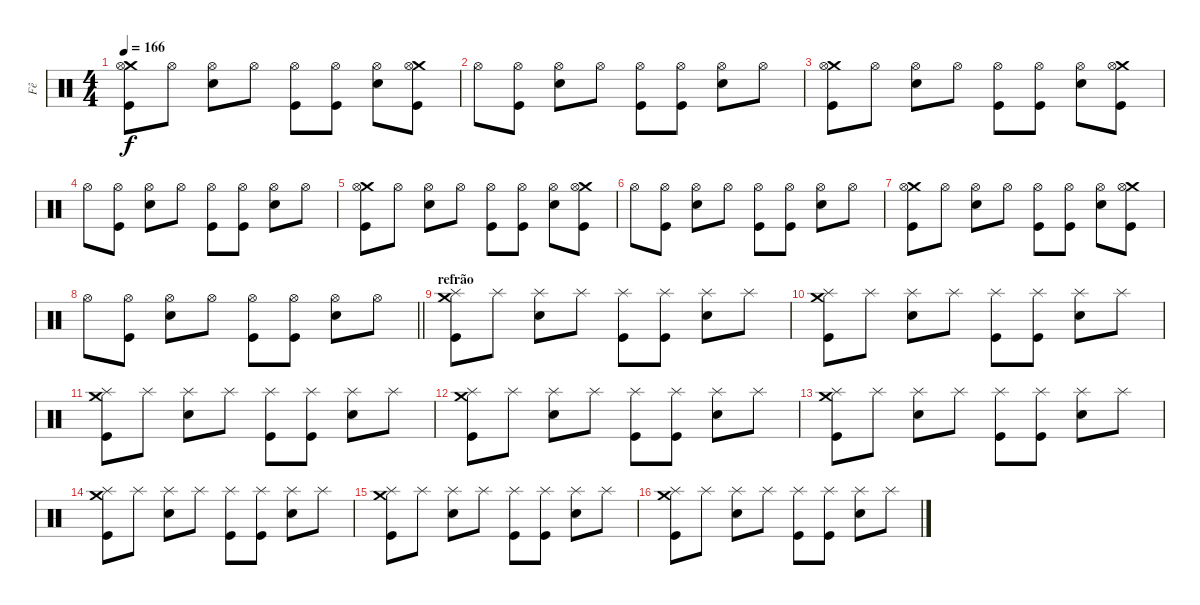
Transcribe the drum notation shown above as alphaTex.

\track ("Fê" "Fê") {instrument percussion}
\staff {score}
\articulation defaults
\ts (4 4)
\tempo 166
\clef neutral
\ks c
("Crash medium (hit)" "Hi-Hat (open)" "Kick (hit)").8{dy f} "Hi-Hat (open)".8 ("Hi-Hat (open)" "Electric Snare (hit)").8 "Hi-Hat (open)".8 ("Hi-Hat (open)" "Kick (hit)").8 ("Hi-Hat (open)" "Kick (hit)").8 ("Hi-Hat (open)" "Electric Snare (hit)").8 ("Crash medium (hit)" "Hi-Hat (open)" "Kick (hit)").8 |
"Hi-Hat (open)".8 ("Hi-Hat (open)" "Kick (hit)").8 ("Hi-Hat (open)" "Electric Snare (hit)").8 "Hi-Hat (open)".8 ("Hi-Hat (open)" "Kick (hit)").8 ("Hi-Hat (open)" "Kick (hit)").8 ("Hi-Hat (open)" "Electric Snare (hit)").8 "Hi-Hat (open)".8 |
("Crash medium (hit)" "Hi-Hat (open)" "Kick (hit)").8 "Hi-Hat (open)".8 ("Hi-Hat (open)" "Electric Snare (hit)").8 "Hi-Hat (open)".8 ("Hi-Hat (open)" "Kick (hit)").8 ("Hi-Hat (open)" "Kick (hit)").8 ("Hi-Hat (open)" "Electric Snare (hit)").8 ("Crash medium (hit)" "Hi-Hat (open)" "Kick (hit)").8 |
"Hi-Hat (open)".8 ("Hi-Hat (open)" "Kick (hit)").8 ("Hi-Hat (open)" "Electric Snare (hit)").8 "Hi-Hat (open)".8 ("Hi-Hat (open)" "Kick (hit)").8 ("Hi-Hat (open)" "Kick (hit)").8 ("Hi-Hat (open)" "Electric Snare (hit)").8 "Hi-Hat (open)".8 |
("Crash medium (hit)" "Hi-Hat (open)" "Kick (hit)").8 "Hi-Hat (open)".8 ("Hi-Hat (open)" "Electric Snare (hit)").8 "Hi-Hat (open)".8 ("Hi-Hat (open)" "Kick (hit)").8 ("Hi-Hat (open)" "Kick (hit)").8 ("Hi-Hat (open)" "Electric Snare (hit)").8 ("Crash medium (hit)" "Hi-Hat (open)" "Kick (hit)").8 |
"Hi-Hat (open)".8 ("Hi-Hat (open)" "Kick (hit)").8 ("Hi-Hat (open)" "Electric Snare (hit)").8 "Hi-Hat (open)".8 ("Hi-Hat (open)" "Kick (hit)").8 ("Hi-Hat (open)" "Kick (hit)").8 ("Hi-Hat (open)" "Electric Snare (hit)").8 "Hi-Hat (open)".8 |
("Crash medium (hit)" "Hi-Hat (open)" "Kick (hit)").8 "Hi-Hat (open)".8 ("Hi-Hat (open)" "Electric Snare (hit)").8 "Hi-Hat (open)".8 ("Hi-Hat (open)" "Kick (hit)").8 ("Hi-Hat (open)" "Kick (hit)").8 ("Hi-Hat (open)" "Electric Snare (hit)").8 ("Crash medium (hit)" "Hi-Hat (open)" "Kick (hit)").8 |
\barLineRight lightlight "Hi-Hat (open)".8
("Hi-Hat (open)" "Kick (hit)").8 ("Hi-Hat (open)" "Electric Snare (hit)").8 "Hi-Hat (open)".8 ("Hi-Hat (open)" "Kick (hit)").8 ("Hi-Hat (open)" "Kick (hit)").8 ("Hi-Hat (open)" "Electric Snare (hit)").8 "Hi-Hat (open)".8 |
\section ("" "refrão")
("Crash medium (hit)" "Splash (hit)" "Kick (hit)").8 "Splash (hit)".8 ("Splash (hit)" "Electric Snare (hit)").8 "Splash (hit)".8 ("Splash (hit)" "Kick (hit)").8 ("Splash (hit)" "Kick (hit)").8 ("Splash (hit)" "Electric Snare (hit)").8 "Splash (hit)".8 |
("Crash medium (hit)" "Splash (hit)" "Kick (hit)").8 "Splash (hit)".8 ("Splash (hit)" "Electric Snare (hit)").8 "Splash (hit)".8 ("Splash (hit)" "Kick (hit)").8 ("Splash (hit)" "Kick (hit)").8 ("Splash (hit)" "Electric Snare (hit)").8 "Splash (hit)".8 |
("Crash medium (hit)" "Splash (hit)" "Kick (hit)").8 "Splash (hit)".8 ("Splash (hit)" "Electric Snare (hit)").8 "Splash (hit)".8 ("Splash (hit)" "Kick (hit)").8 ("Splash (hit)" "Kick (hit)").8 ("Splash (hit)" "Electric Snare (hit)").8 "Splash (hit)".8 |
("Crash medium (hit)" "Splash (hit)" "Kick (hit)").8 "Splash (hit)".8 ("Splash (hit)" "Electric Snare (hit)").8 "Splash (hit)".8 ("Splash (hit)" "Kick (hit)").8 ("Splash (hit)" "Kick (hit)").8 ("Splash (hit)" "Electric Snare (hit)").8 "Splash (hit)".8 |
("Crash medium (hit)" "Splash (hit)" "Kick (hit)").8 "Splash (hit)".8 ("Splash (hit)" "Electric Snare (hit)").8 "Splash (hit)".8 ("Splash (hit)" "Kick (hit)").8 ("Splash (hit)" "Kick (hit)").8 ("Splash (hit)" "Electric Snare (hit)").8 "Splash (hit)".8 |
("Crash medium (hit)" "Splash (hit)" "Kick (hit)").8 "Splash (hit)".8 ("Splash (hit)" "Electric Snare (hit)").8 "Splash (hit)".8 ("Splash (hit)" "Kick (hit)").8 ("Splash (hit)" "Kick (hit)").8 ("Splash (hit)" "Electric Snare (hit)").8 "Splash (hit)".8 |
("Crash medium (hit)" "Splash (hit)" "Kick (hit)").8 "Splash (hit)".8 ("Splash (hit)" "Electric Snare (hit)").8 "Splash (hit)".8 ("Splash (hit)" "Kick (hit)").8 ("Splash (hit)" "Kick (hit)").8 ("Splash (hit)" "Electric Snare (hit)").8 "Splash (hit)".8 |
("Crash medium (hit)" "Splash (hit)" "Kick (hit)").8 "Splash (hit)".8 ("Splash (hit)" "Electric Snare (hit)").8 "Splash (hit)".8 ("Splash (hit)" "Kick (hit)").8 ("Splash (hit)" "Kick (hit)").8 ("Splash (hit)" "Electric Snare (hit)").8 "Splash (hit)".8
